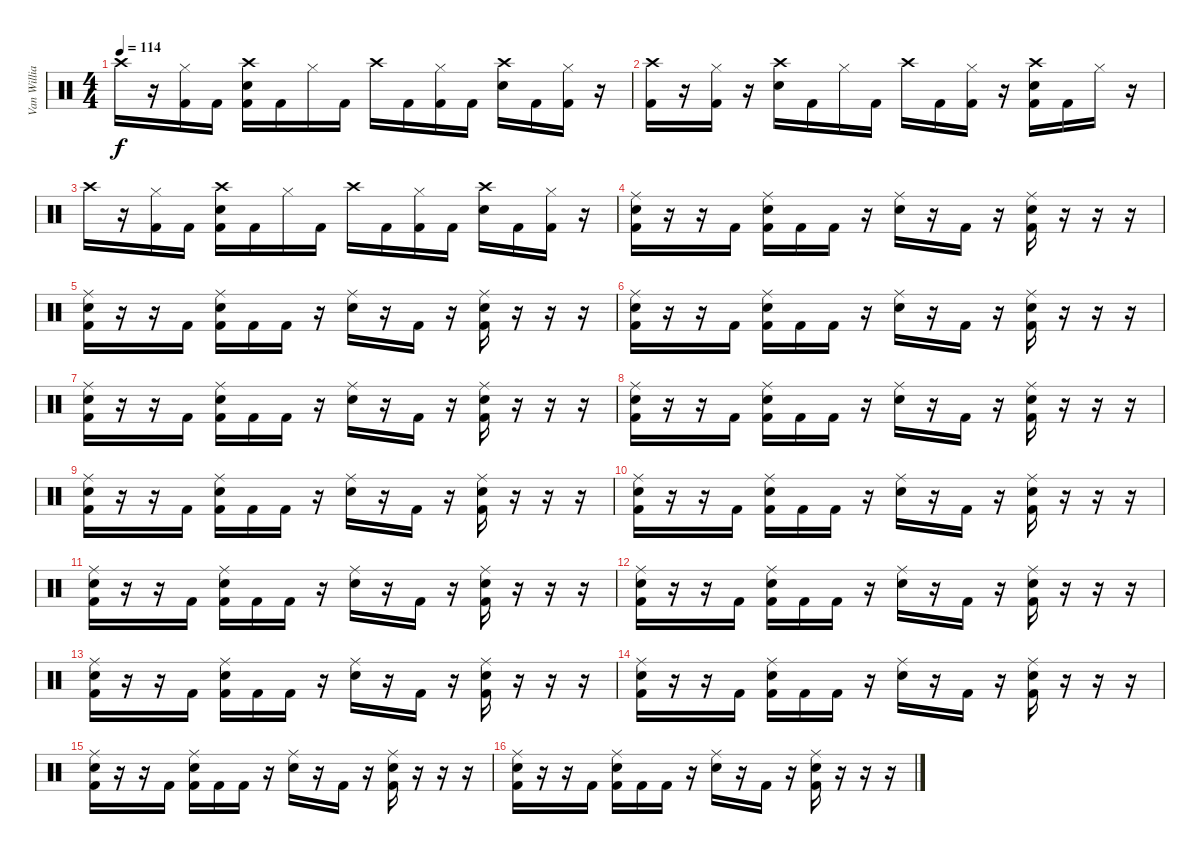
\track ("Van Williams (Drums)" "Van Willia") {instrument percussion}
\staff {score}
\articulation defaults
\ts (4 4)
\tempo 114
\clef neutral
\ks c "Crash high (hit)".16{dy f}
r.16 ("Hi-Hat (closed)" "Kick (hit) 2").16 "Kick (hit) 2".16 ("Snare (hit) 2" "Crash high (hit)" "Kick (hit) 2").16 "Kick (hit) 2".16 "Hi-Hat (closed)".16 "Kick (hit) 2".16 "Crash high (hit)".16 "Kick (hit) 2".16 ("Hi-Hat (closed)" "Kick (hit) 2").16 "Kick (hit) 2".16 ("Snare (hit) 2" "Crash high (hit)").16 "Kick (hit) 2".16 ("Hi-Hat (closed)" "Kick (hit) 2").16 r.16 |
("Crash high (hit)" "Kick (hit) 2").16 r.16 ("Hi-Hat (closed)" "Kick (hit) 2").16 r.16 ("Snare (hit) 2" "Crash high (hit)").16 "Kick (hit) 2".16 "Hi-Hat (closed)".16 "Kick (hit) 2".16 "Crash high (hit)".16 "Kick (hit) 2".16 ("Hi-Hat (closed)" "Kick (hit) 2").16 r.16 ("Snare (hit) 2" "Crash high (hit)" "Kick (hit) 2").16 "Kick (hit) 2".16 "Hi-Hat (closed)".16 r.16 |
"Crash high (hit)".16 r.16 ("Hi-Hat (closed)" "Kick (hit) 2").16 "Kick (hit) 2".16 ("Snare (hit) 2" "Crash high (hit)" "Kick (hit) 2").16 "Kick (hit) 2".16 "Hi-Hat (closed)".16 "Kick (hit) 2".16 "Crash high (hit)".16 "Kick (hit) 2".16 ("Hi-Hat (closed)" "Kick (hit) 2").16 "Kick (hit) 2".16 ("Snare (hit) 2" "Crash high (hit)").16 "Kick (hit) 2".16 ("Hi-Hat (closed)" "Kick (hit) 2").16 r.16 |
("Ride (middle)" "Snare (hit) 2" "Kick (hit) 2").16 r.16 r.16 "Kick (hit) 2".16 ("Ride (middle)" "Snare (hit) 2" "Kick (hit) 2").16 "Kick (hit) 2".16 "Kick (hit) 2".16 r.16 ("Ride (middle)" "Snare (hit) 2").16 r.16 "Kick (hit) 2".16 r.16 ("Ride (middle)" "Snare (hit) 2" "Kick (hit) 2").16 r.16 r.16 r.16 |
("Ride (middle)" "Snare (hit) 2" "Kick (hit) 2").16 r.16 r.16 "Kick (hit) 2".16 ("Ride (middle)" "Snare (hit) 2" "Kick (hit) 2").16 "Kick (hit) 2".16 "Kick (hit) 2".16 r.16 ("Ride (middle)" "Snare (hit) 2").16 r.16 "Kick (hit) 2".16 r.16 ("Ride (middle)" "Snare (hit) 2" "Kick (hit) 2").16 r.16 r.16 r.16 |
("Ride (middle)" "Snare (hit) 2" "Kick (hit) 2").16 r.16 r.16 "Kick (hit) 2".16 ("Ride (middle)" "Snare (hit) 2" "Kick (hit) 2").16 "Kick (hit) 2".16 "Kick (hit) 2".16 r.16 ("Ride (middle)" "Snare (hit) 2").16 r.16 "Kick (hit) 2".16 r.16 ("Ride (middle)" "Snare (hit) 2" "Kick (hit) 2").16 r.16 r.16 r.16 |
("Ride (middle)" "Snare (hit) 2" "Kick (hit) 2").16 r.16 r.16 "Kick (hit) 2".16 ("Ride (middle)" "Snare (hit) 2" "Kick (hit) 2").16 "Kick (hit) 2".16 "Kick (hit) 2".16 r.16 ("Ride (middle)" "Snare (hit) 2").16 r.16 "Kick (hit) 2".16 r.16 ("Ride (middle)" "Snare (hit) 2" "Kick (hit) 2").16 r.16 r.16 r.16 |
("Ride (middle)" "Snare (hit) 2" "Kick (hit) 2").16 r.16 r.16 "Kick (hit) 2".16 ("Ride (middle)" "Snare (hit) 2" "Kick (hit) 2").16 "Kick (hit) 2".16 "Kick (hit) 2".16 r.16 ("Ride (middle)" "Snare (hit) 2").16 r.16 "Kick (hit) 2".16 r.16 ("Ride (middle)" "Snare (hit) 2" "Kick (hit) 2").16 r.16 r.16 r.16 |
("Ride (middle)" "Snare (hit) 2" "Kick (hit) 2").16 r.16 r.16 "Kick (hit) 2".16 ("Ride (middle)" "Snare (hit) 2" "Kick (hit) 2").16 "Kick (hit) 2".16 "Kick (hit) 2".16 r.16 ("Ride (middle)" "Snare (hit) 2").16 r.16 "Kick (hit) 2".16 r.16 ("Ride (middle)" "Snare (hit) 2" "Kick (hit) 2").16 r.16 r.16 r.16 |
("Ride (middle)" "Snare (hit) 2" "Kick (hit) 2").16 r.16 r.16 "Kick (hit) 2".16 ("Ride (middle)" "Snare (hit) 2" "Kick (hit) 2").16 "Kick (hit) 2".16 "Kick (hit) 2".16 r.16 ("Ride (middle)" "Snare (hit) 2").16 r.16 "Kick (hit) 2".16 r.16 ("Ride (middle)" "Snare (hit) 2" "Kick (hit) 2").16 r.16 r.16 r.16 |
("Ride (middle)" "Snare (hit) 2" "Kick (hit) 2").16 r.16 r.16 "Kick (hit) 2".16 ("Ride (middle)" "Snare (hit) 2" "Kick (hit) 2").16 "Kick (hit) 2".16 "Kick (hit) 2".16 r.16 ("Ride (middle)" "Snare (hit) 2").16 r.16 "Kick (hit) 2".16 r.16 ("Ride (middle)" "Snare (hit) 2" "Kick (hit) 2").16 r.16 r.16 r.16 |
("Ride (middle)" "Snare (hit) 2" "Kick (hit) 2").16 r.16 r.16 "Kick (hit) 2".16 ("Ride (middle)" "Snare (hit) 2" "Kick (hit) 2").16 "Kick (hit) 2".16 "Kick (hit) 2".16 r.16 ("Ride (middle)" "Snare (hit) 2").16 r.16 "Kick (hit) 2".16 r.16 ("Ride (middle)" "Snare (hit) 2" "Kick (hit) 2").16 r.16 r.16 r.16 |
("Ride (middle)" "Snare (hit) 2" "Kick (hit) 2").16 r.16 r.16 "Kick (hit) 2".16 ("Ride (middle)" "Snare (hit) 2" "Kick (hit) 2").16 "Kick (hit) 2".16 "Kick (hit) 2".16 r.16 ("Ride (middle)" "Snare (hit) 2").16 r.16 "Kick (hit) 2".16 r.16 ("Ride (middle)" "Snare (hit) 2" "Kick (hit) 2").16 r.16 r.16 r.16 |
("Ride (middle)" "Snare (hit) 2" "Kick (hit) 2").16 r.16 r.16 "Kick (hit) 2".16 ("Ride (middle)" "Snare (hit) 2" "Kick (hit) 2").16 "Kick (hit) 2".16 "Kick (hit) 2".16 r.16 ("Ride (middle)" "Snare (hit) 2").16 r.16 "Kick (hit) 2".16 r.16 ("Ride (middle)" "Snare (hit) 2" "Kick (hit) 2").16 r.16 r.16 r.16 |
("Ride (middle)" "Snare (hit) 2" "Kick (hit) 2").16 r.16 r.16 "Kick (hit) 2".16 ("Ride (middle)" "Snare (hit) 2" "Kick (hit) 2").16 "Kick (hit) 2".16 "Kick (hit) 2".16 r.16 ("Ride (middle)" "Snare (hit) 2").16 r.16 "Kick (hit) 2".16 r.16 ("Ride (middle)" "Snare (hit) 2" "Kick (hit) 2").16 r.16 r.16 r.16 |
("Ride (middle)" "Snare (hit) 2" "Kick (hit) 2").16 r.16 r.16 "Kick (hit) 2".16 ("Ride (middle)" "Snare (hit) 2" "Kick (hit) 2").16 "Kick (hit) 2".16 "Kick (hit) 2".16 r.16 ("Ride (middle)" "Snare (hit) 2").16 r.16 "Kick (hit) 2".16 r.16 ("Ride (middle)" "Snare (hit) 2" "Kick (hit) 2").16 r.16 r.16 r.16
